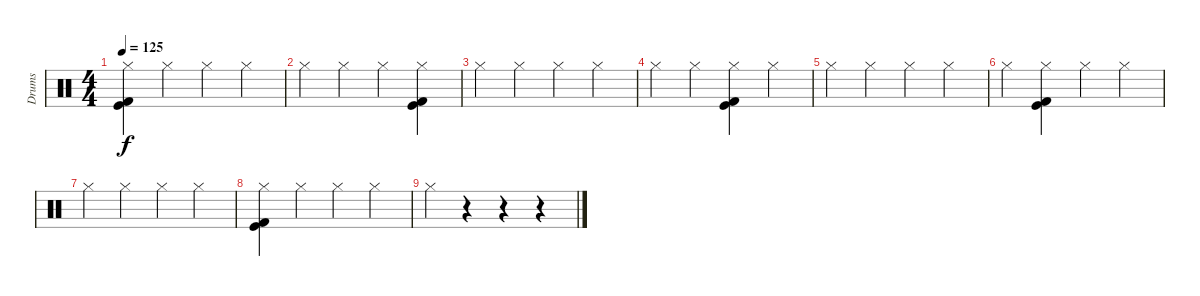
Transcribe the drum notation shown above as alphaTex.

\track ("Drums" "Drums") {instrument percussion}
\staff {score}
\articulation defaults
\ts (4 4)
\tempo 125
\clef neutral
\ks c
("Hi-Hat (closed)" "Kick (hit)" "Kick (hit) 2").4{dy f} "Hi-Hat (closed)".4 "Hi-Hat (closed)".4 "Hi-Hat (closed)".4 |
"Hi-Hat (closed)".4 "Hi-Hat (closed)".4 "Hi-Hat (closed)".4 ("Hi-Hat (closed)" "Kick (hit)" "Kick (hit) 2").4 |
"Hi-Hat (closed)".4 "Hi-Hat (closed)".4 "Hi-Hat (closed)".4 "Hi-Hat (closed)".4 |
"Hi-Hat (closed)".4 "Hi-Hat (closed)".4 ("Hi-Hat (closed)" "Kick (hit)" "Kick (hit) 2").4 "Hi-Hat (closed)".4 |
"Hi-Hat (closed)".4 "Hi-Hat (closed)".4 "Hi-Hat (closed)".4 "Hi-Hat (closed)".4 |
"Hi-Hat (closed)".4 ("Hi-Hat (closed)" "Kick (hit)" "Kick (hit) 2").4 "Hi-Hat (closed)".4 "Hi-Hat (closed)".4 |
"Hi-Hat (closed)".4 "Hi-Hat (closed)".4 "Hi-Hat (closed)".4 "Hi-Hat (closed)".4 |
("Hi-Hat (closed)" "Kick (hit)" "Kick (hit) 2").4 "Hi-Hat (closed)".4 "Hi-Hat (closed)".4 "Hi-Hat (closed)".4 |
"Hi-Hat (closed)".4 r.4 r.4 r.4
